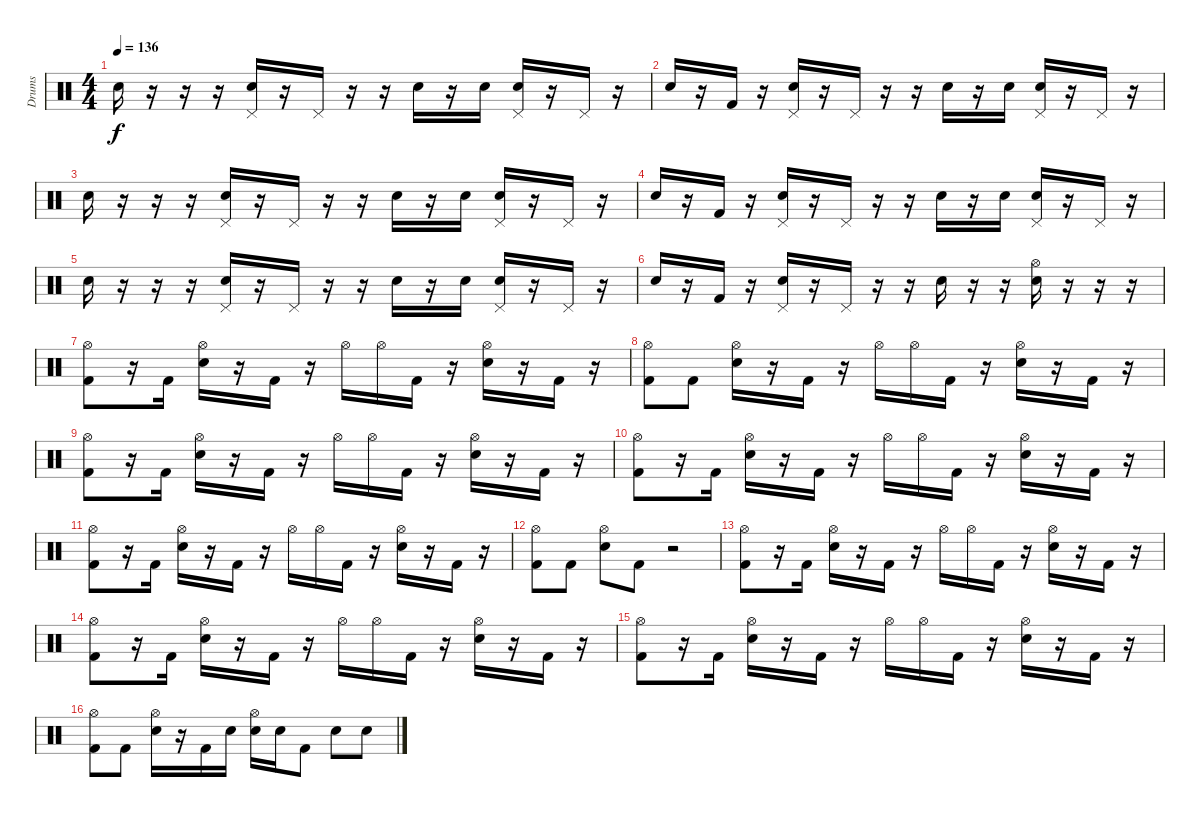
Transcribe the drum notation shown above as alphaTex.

\track ("Drums" "Drums") {instrument percussion}
\staff {score}
\articulation defaults
\ts (4 4)
\tempo 136
\clef neutral
\ks c "Electric Snare (hit)".16{dy f}
r.16 r.16 r.16 ("Pedal Hi-Hat (hit)" "Electric Snare (hit)").16 r.16 "Pedal Hi-Hat (hit)".16 r.16 r.16 "Electric Snare (hit)".16 r.16 "Electric Snare (hit)".16 ("Pedal Hi-Hat (hit)" "Electric Snare (hit)").16 r.16 "Pedal Hi-Hat (hit)".16 r.16 |
"Electric Snare (hit)".16 r.16 "Kick (hit) 2".16 r.16 ("Pedal Hi-Hat (hit)" "Electric Snare (hit)").16 r.16 "Pedal Hi-Hat (hit)".16 r.16 r.16 "Electric Snare (hit)".16 r.16 "Electric Snare (hit)".16 ("Pedal Hi-Hat (hit)" "Electric Snare (hit)").16 r.16 "Pedal Hi-Hat (hit)".16 r.16 |
"Electric Snare (hit)".16 r.16 r.16 r.16 ("Pedal Hi-Hat (hit)" "Electric Snare (hit)").16 r.16 "Pedal Hi-Hat (hit)".16 r.16 r.16 "Electric Snare (hit)".16 r.16 "Electric Snare (hit)".16 ("Pedal Hi-Hat (hit)" "Electric Snare (hit)").16 r.16 "Pedal Hi-Hat (hit)".16 r.16 |
"Electric Snare (hit)".16 r.16 "Kick (hit) 2".16 r.16 ("Pedal Hi-Hat (hit)" "Electric Snare (hit)").16 r.16 "Pedal Hi-Hat (hit)".16 r.16 r.16 "Electric Snare (hit)".16 r.16 "Electric Snare (hit)".16 ("Pedal Hi-Hat (hit)" "Electric Snare (hit)").16 r.16 "Pedal Hi-Hat (hit)".16 r.16 |
"Electric Snare (hit)".16 r.16 r.16 r.16 ("Pedal Hi-Hat (hit)" "Electric Snare (hit)").16 r.16 "Pedal Hi-Hat (hit)".16 r.16 r.16 "Electric Snare (hit)".16 r.16 "Electric Snare (hit)".16 ("Pedal Hi-Hat (hit)" "Electric Snare (hit)").16 r.16 "Pedal Hi-Hat (hit)".16 r.16 |
"Electric Snare (hit)".16 r.16 "Kick (hit) 2".16 r.16 ("Pedal Hi-Hat (hit)" "Electric Snare (hit)").16 r.16 "Pedal Hi-Hat (hit)".16 r.16 r.16 "Electric Snare (hit)".16 r.16 r.16 ("Hi-Hat (open)" "Electric Snare (hit)").16 r.16 r.16 r.16 |
("Hi-Hat (open)" "Kick (hit) 2").8 r.16 "Kick (hit) 2".16 ("Hi-Hat (open)" "Electric Snare (hit)").16 r.16 "Kick (hit) 2".16 r.16 "Hi-Hat (open)".16 "Hi-Hat (open)".16 "Kick (hit) 2".16 r.16 ("Hi-Hat (open)" "Electric Snare (hit)").16 r.16 "Kick (hit) 2".16 r.16 |
("Hi-Hat (open)" "Kick (hit) 2").8 "Kick (hit) 2".8 ("Hi-Hat (open)" "Electric Snare (hit)").16 r.16 "Kick (hit) 2".16 r.16 "Hi-Hat (open)".16 "Hi-Hat (open)".16 "Kick (hit) 2".16 r.16 ("Hi-Hat (open)" "Electric Snare (hit)").16 r.16 "Kick (hit) 2".16 r.16 |
("Hi-Hat (open)" "Kick (hit) 2").8 r.16 "Kick (hit) 2".16 ("Hi-Hat (open)" "Electric Snare (hit)").16 r.16 "Kick (hit) 2".16 r.16 "Hi-Hat (open)".16 "Hi-Hat (open)".16 "Kick (hit) 2".16 r.16 ("Hi-Hat (open)" "Electric Snare (hit)").16 r.16 "Kick (hit) 2".16 r.16 |
("Hi-Hat (open)" "Kick (hit) 2").8 r.16 "Kick (hit) 2".16 ("Hi-Hat (open)" "Electric Snare (hit)").16 r.16 "Kick (hit) 2".16 r.16 "Hi-Hat (open)".16 "Hi-Hat (open)".16 "Kick (hit) 2".16 r.16 ("Hi-Hat (open)" "Electric Snare (hit)").16 r.16 "Kick (hit) 2".16 r.16 |
("Hi-Hat (open)" "Kick (hit) 2").8 r.16 "Kick (hit) 2".16 ("Hi-Hat (open)" "Electric Snare (hit)").16 r.16 "Kick (hit) 2".16 r.16 "Hi-Hat (open)".16 "Hi-Hat (open)".16 "Kick (hit) 2".16 r.16 ("Hi-Hat (open)" "Electric Snare (hit)").16 r.16 "Kick (hit) 2".16 r.16 |
("Hi-Hat (open)" "Kick (hit) 2").8 "Kick (hit) 2".8 ("Hi-Hat (open)" "Electric Snare (hit)").8 "Kick (hit) 2".8 r.2 |
("Hi-Hat (open)" "Kick (hit) 2").8 r.16 "Kick (hit) 2".16 ("Hi-Hat (open)" "Electric Snare (hit)").16 r.16 "Kick (hit) 2".16 r.16 "Hi-Hat (open)".16 "Hi-Hat (open)".16 "Kick (hit) 2".16 r.16 ("Hi-Hat (open)" "Electric Snare (hit)").16 r.16 "Kick (hit) 2".16 r.16 |
("Hi-Hat (open)" "Kick (hit) 2").8 r.16 "Kick (hit) 2".16 ("Hi-Hat (open)" "Electric Snare (hit)").16 r.16 "Kick (hit) 2".16 r.16 "Hi-Hat (open)".16 "Hi-Hat (open)".16 "Kick (hit) 2".16 r.16 ("Hi-Hat (open)" "Electric Snare (hit)").16 r.16 "Kick (hit) 2".16 r.16 |
("Hi-Hat (open)" "Kick (hit) 2").8 r.16 "Kick (hit) 2".16 ("Hi-Hat (open)" "Electric Snare (hit)").16 r.16 "Kick (hit) 2".16 r.16 "Hi-Hat (open)".16 "Hi-Hat (open)".16 "Kick (hit) 2".16 r.16 ("Hi-Hat (open)" "Electric Snare (hit)").16 r.16 "Kick (hit) 2".16 r.16 |
("Hi-Hat (open)" "Kick (hit) 2").8 "Kick (hit) 2".8 ("Hi-Hat (open)" "Electric Snare (hit)").16 r.16 "Kick (hit) 2".16 "Electric Snare (hit)".16 ("Hi-Hat (open)" "Electric Snare (hit)").16 "Electric Snare (hit)".16 "Kick (hit) 2".8 "Electric Snare (hit)".8 "Electric Snare (hit)".8
